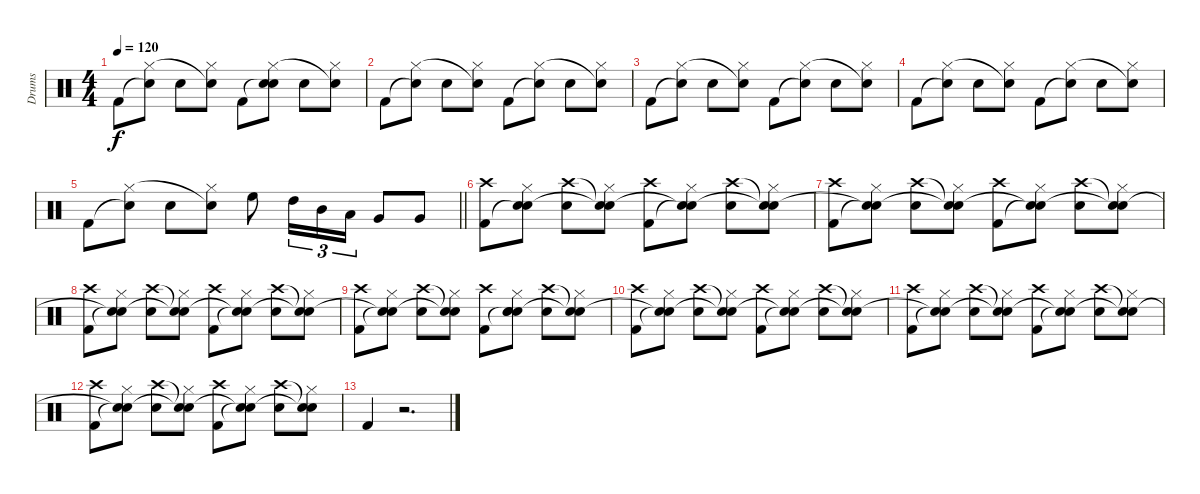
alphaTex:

\track ("Drums" "Drums") {instrument percussion}
\staff {score}
\articulation defaults
\ts (4 4)
\tempo 120
\clef neutral
\ks c "Kick (hit) 2".8{dy f}
("Snare (hit)"{t} "Hi-Hat (closed)").8 "Snare (hit) 2".8 ("Hi-Hat (closed)" "Snare (hit)"{t}).8 "Kick (hit) 2".8 ("Snare (hit)"{t} "Hi-Hat (closed)" "Snare (hit) 2").8 "Snare (hit) 2".8 ("Hi-Hat (closed)" "Snare (hit)"{t}).8 |
"Kick (hit) 2".8 ("Snare (hit)"{t} "Hi-Hat (closed)").8 "Snare (hit) 2".8 ("Hi-Hat (closed)" "Snare (hit)"{t}).8 "Kick (hit) 2".8 ("Snare (hit)"{t} "Hi-Hat (closed)").8 "Snare (hit) 2".8 ("Hi-Hat (closed)" "Snare (hit)"{t}).8 |
"Kick (hit) 2".8 ("Snare (hit)"{t} "Hi-Hat (closed)").8 "Snare (hit) 2".8 ("Hi-Hat (closed)" "Snare (hit)"{t}).8 "Kick (hit) 2".8 ("Snare (hit)"{t} "Hi-Hat (closed)").8 "Snare (hit) 2".8 ("Hi-Hat (closed)" "Snare (hit)"{t}).8 |
"Kick (hit) 2".8 ("Snare (hit)"{t} "Hi-Hat (closed)").8 "Snare (hit) 2".8 ("Hi-Hat (closed)" "Snare (hit)"{t}).8 "Kick (hit) 2".8 ("Snare (hit)"{t} "Hi-Hat (closed)").8 "Snare (hit) 2".8 ("Hi-Hat (closed)" "Snare (hit)"{t}).8 |
\barLineRight lightlight "Kick (hit) 2".8
("Snare (hit)"{t} "Hi-Hat (closed)").8 "Snare (hit) 2".8 ("Hi-Hat (closed)" "Snare (hit)"{t}).8 "High Floor Tom (hit)".8 "High Tom (hit)".16{tu (3 2)} "Mid Tom (hit)".16{tu (3 2)} "Low Tom (hit)".16{tu (3 2)} "Very Low Tom (hit)".8 "Very Low Tom (hit)".8 |
\section ("" "")
("Kick (hit) 2" "Crash high (hit)").8 ("Snare (hit)"{t} "Hi-Hat (closed)" "Snare (hit)").8 ("Snare (hit) 2" "Crash high (hit)").8 ("Hi-Hat (closed)" "Snare (hit)"{t} "Snare (hit)"{t}).8 ("Kick (hit) 2" "Crash high (hit)").8 ("Snare (hit)"{t} "Hi-Hat (closed)" "Snare (hit)"{t}).8 ("Snare (hit) 2" "Crash high (hit)").8 ("Hi-Hat (closed)" "Snare (hit)"{t} "Snare (hit)"{t}).8 |
("Kick (hit) 2" "Crash high (hit)").8 ("Snare (hit)"{t} "Hi-Hat (closed)" "Snare (hit)"{t}).8 ("Snare (hit) 2" "Crash high (hit)").8 ("Hi-Hat (closed)" "Snare (hit)"{t} "Snare (hit)"{t}).8 ("Kick (hit) 2" "Crash high (hit)").8 ("Snare (hit)"{t} "Hi-Hat (closed)" "Snare (hit)"{t}).8 ("Snare (hit) 2" "Crash high (hit)").8 ("Hi-Hat (closed)" "Snare (hit)"{t} "Snare (hit)"{t}).8 |
("Kick (hit) 2" "Crash high (hit)").8 ("Snare (hit)"{t} "Hi-Hat (closed)" "Snare (hit)"{t}).8 ("Snare (hit) 2" "Crash high (hit)").8 ("Hi-Hat (closed)" "Snare (hit)"{t} "Snare (hit)"{t}).8 ("Kick (hit) 2" "Crash high (hit)").8 ("Snare (hit)"{t} "Hi-Hat (closed)" "Snare (hit)"{t}).8 ("Snare (hit) 2" "Crash high (hit)").8 ("Hi-Hat (closed)" "Snare (hit)"{t} "Snare (hit)"{t}).8 |
("Kick (hit) 2" "Crash high (hit)").8 ("Snare (hit)"{t} "Hi-Hat (closed)" "Snare (hit)"{t}).8 ("Snare (hit) 2" "Crash high (hit)").8 ("Hi-Hat (closed)" "Snare (hit)"{t} "Snare (hit)"{t}).8 ("Kick (hit) 2" "Crash high (hit)").8 ("Snare (hit)"{t} "Hi-Hat (closed)" "Snare (hit) 2" "Snare (hit)").8 ("Snare (hit) 2" "Crash high (hit)").8 ("Hi-Hat (closed)" "Snare (hit)"{t} "Snare (hit)"{t}).8 |
("Kick (hit) 2" "Crash high (hit)").8 ("Snare (hit)"{t} "Hi-Hat (closed)" "Snare (hit)"{t}).8 ("Snare (hit) 2" "Crash high (hit)").8 ("Hi-Hat (closed)" "Snare (hit)"{t} "Snare (hit)"{t}).8 ("Kick (hit) 2" "Crash high (hit)").8 ("Snare (hit)"{t} "Hi-Hat (closed)" "Snare (hit)"{t}).8 ("Snare (hit) 2" "Crash high (hit)").8 ("Hi-Hat (closed)" "Snare (hit)"{t} "Snare (hit)"{t}).8 |
("Kick (hit) 2" "Crash high (hit)").8 ("Snare (hit)"{t} "Hi-Hat (closed)" "Snare (hit)"{t}).8 ("Snare (hit) 2" "Crash high (hit)").8 ("Hi-Hat (closed)" "Snare (hit)"{t} "Snare (hit)"{t}).8 ("Kick (hit) 2" "Crash high (hit)").8 ("Snare (hit)"{t} "Hi-Hat (closed)" "Snare (hit)"{t}).8 ("Snare (hit) 2" "Crash high (hit)").8 ("Hi-Hat (closed)" "Snare (hit)"{t} "Snare (hit)"{t}).8 |
("Kick (hit) 2" "Crash high (hit)").8 ("Snare (hit)"{t} "Hi-Hat (closed)" "Snare (hit)"{t}).8 ("Snare (hit) 2" "Crash high (hit)").8 ("Hi-Hat (closed)" "Snare (hit)"{t} "Snare (hit)"{t}).8 ("Kick (hit) 2" "Crash high (hit)").8 ("Snare (hit)"{t} "Hi-Hat (closed)" "Snare (hit)"{t}).8 ("Snare (hit) 2" "Crash high (hit)").8 ("Hi-Hat (closed)" "Snare (hit)"{t} "Snare (hit)"{t}).8 |
"Kick (hit) 2".4 r.2{d}
